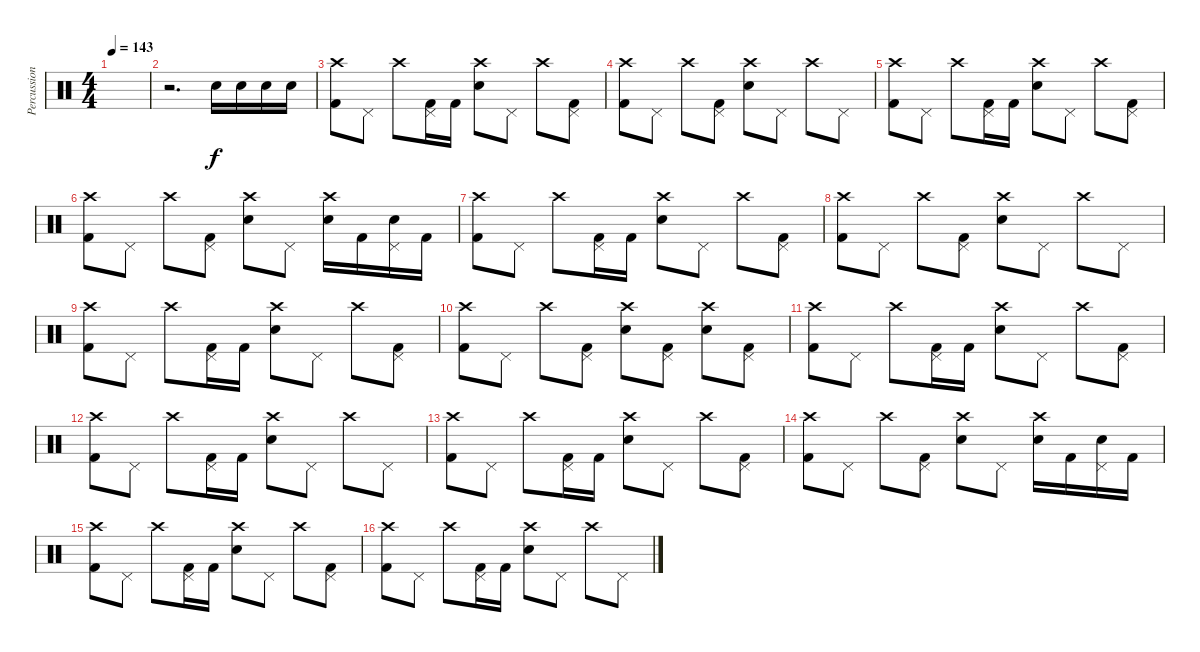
\track ("Percussion" "Percussion") {instrument percussion}
\staff {score}
\articulation defaults
\ts (4 4)
\tempo 143
\clef neutral
\ks c
|
r.2{d} "Snare (hit) 2".16 "Snare (hit) 2".16 "Snare (hit) 2".16 "Snare (hit) 2".16 |
("Crash high (hit)" "Kick (hit) 2").8 "Pedal Hi-Hat (hit)".8 "Crash high (hit)".8 ("Pedal Hi-Hat (hit)" "Kick (hit) 2").16 "Kick (hit) 2".16 ("Crash high (hit)" "Snare (hit) 2").8 "Pedal Hi-Hat (hit)".8 "Crash high (hit)".8 ("Pedal Hi-Hat (hit)" "Kick (hit) 2").8 |
("Crash high (hit)" "Kick (hit) 2").8 "Pedal Hi-Hat (hit)".8 "Crash high (hit)".8 ("Pedal Hi-Hat (hit)" "Kick (hit) 2").8 ("Crash high (hit)" "Snare (hit) 2").8 "Pedal Hi-Hat (hit)".8 "Crash high (hit)".8 "Pedal Hi-Hat (hit)".8 |
("Crash high (hit)" "Kick (hit) 2").8 "Pedal Hi-Hat (hit)".8 "Crash high (hit)".8 ("Pedal Hi-Hat (hit)" "Kick (hit) 2").16 "Kick (hit) 2".16 ("Crash high (hit)" "Snare (hit) 2").8 "Pedal Hi-Hat (hit)".8 "Crash high (hit)".8 ("Pedal Hi-Hat (hit)" "Kick (hit) 2").8 |
("Crash high (hit)" "Kick (hit) 2").8 "Pedal Hi-Hat (hit)".8 "Crash high (hit)".8 ("Pedal Hi-Hat (hit)" "Kick (hit) 2").8 ("Crash high (hit)" "Snare (hit) 2").8 "Pedal Hi-Hat (hit)".8 ("Crash high (hit)" "Snare (hit) 2").16 "Kick (hit) 2".16 ("Pedal Hi-Hat (hit)" "Snare (hit) 2").16 "Kick (hit) 2".16 |
("Crash high (hit)" "Kick (hit) 2").8 "Pedal Hi-Hat (hit)".8 "Crash high (hit)".8 ("Pedal Hi-Hat (hit)" "Kick (hit) 2").16 "Kick (hit) 2".16 ("Crash high (hit)" "Snare (hit) 2").8 "Pedal Hi-Hat (hit)".8 "Crash high (hit)".8 ("Pedal Hi-Hat (hit)" "Kick (hit) 2").8 |
("Crash high (hit)" "Kick (hit) 2").8 "Pedal Hi-Hat (hit)".8 "Crash high (hit)".8 ("Pedal Hi-Hat (hit)" "Kick (hit) 2").8 ("Crash high (hit)" "Snare (hit) 2").8 "Pedal Hi-Hat (hit)".8 "Crash high (hit)".8 "Pedal Hi-Hat (hit)".8 |
("Crash high (hit)" "Kick (hit) 2").8 "Pedal Hi-Hat (hit)".8 "Crash high (hit)".8 ("Pedal Hi-Hat (hit)" "Kick (hit) 2").16 "Kick (hit) 2".16 ("Crash high (hit)" "Snare (hit) 2").8 "Pedal Hi-Hat (hit)".8 "Crash high (hit)".8 ("Pedal Hi-Hat (hit)" "Kick (hit) 2").8 |
("Crash high (hit)" "Kick (hit) 2").8 "Pedal Hi-Hat (hit)".8 "Crash high (hit)".8 ("Pedal Hi-Hat (hit)" "Kick (hit) 2").8 ("Crash high (hit)" "Snare (hit) 2").8 ("Pedal Hi-Hat (hit)" "Kick (hit) 2").8 ("Crash high (hit)" "Snare (hit) 2").8 ("Pedal Hi-Hat (hit)" "Kick (hit) 2").8 |
("Crash high (hit)" "Kick (hit) 2").8 "Pedal Hi-Hat (hit)".8 "Crash high (hit)".8 ("Pedal Hi-Hat (hit)" "Kick (hit) 2").16 "Kick (hit) 2".16 ("Crash high (hit)" "Snare (hit) 2").8 "Pedal Hi-Hat (hit)".8 "Crash high (hit)".8 ("Pedal Hi-Hat (hit)" "Kick (hit) 2").8 |
("Crash high (hit)" "Kick (hit) 2").8 "Pedal Hi-Hat (hit)".8 "Crash high (hit)".8 ("Pedal Hi-Hat (hit)" "Kick (hit) 2").16 "Kick (hit) 2".16 ("Crash high (hit)" "Snare (hit) 2").8 "Pedal Hi-Hat (hit)".8 "Crash high (hit)".8 "Pedal Hi-Hat (hit)".8 |
("Crash high (hit)" "Kick (hit) 2").8 "Pedal Hi-Hat (hit)".8 "Crash high (hit)".8 ("Pedal Hi-Hat (hit)" "Kick (hit) 2").16 "Kick (hit) 2".16 ("Crash high (hit)" "Snare (hit) 2").8 "Pedal Hi-Hat (hit)".8 "Crash high (hit)".8 ("Pedal Hi-Hat (hit)" "Kick (hit) 2").8 |
("Crash high (hit)" "Kick (hit) 2").8 "Pedal Hi-Hat (hit)".8 "Crash high (hit)".8 ("Pedal Hi-Hat (hit)" "Kick (hit) 2").8 ("Crash high (hit)" "Snare (hit) 2").8 "Pedal Hi-Hat (hit)".8 ("Crash high (hit)" "Snare (hit) 2").16 "Kick (hit) 2".16 ("Pedal Hi-Hat (hit)" "Snare (hit) 2").16 "Kick (hit) 2".16 |
("Crash high (hit)" "Kick (hit) 2").8 "Pedal Hi-Hat (hit)".8 "Crash high (hit)".8 ("Pedal Hi-Hat (hit)" "Kick (hit) 2").16 "Kick (hit) 2".16 ("Crash high (hit)" "Snare (hit) 2").8 "Pedal Hi-Hat (hit)".8 "Crash high (hit)".8 ("Pedal Hi-Hat (hit)" "Kick (hit) 2").8 |
("Crash high (hit)" "Kick (hit) 2").8 "Pedal Hi-Hat (hit)".8 "Crash high (hit)".8 ("Pedal Hi-Hat (hit)" "Kick (hit) 2").16 "Kick (hit) 2".16 ("Crash high (hit)" "Snare (hit) 2").8 "Pedal Hi-Hat (hit)".8 "Crash high (hit)".8 "Pedal Hi-Hat (hit)".8
